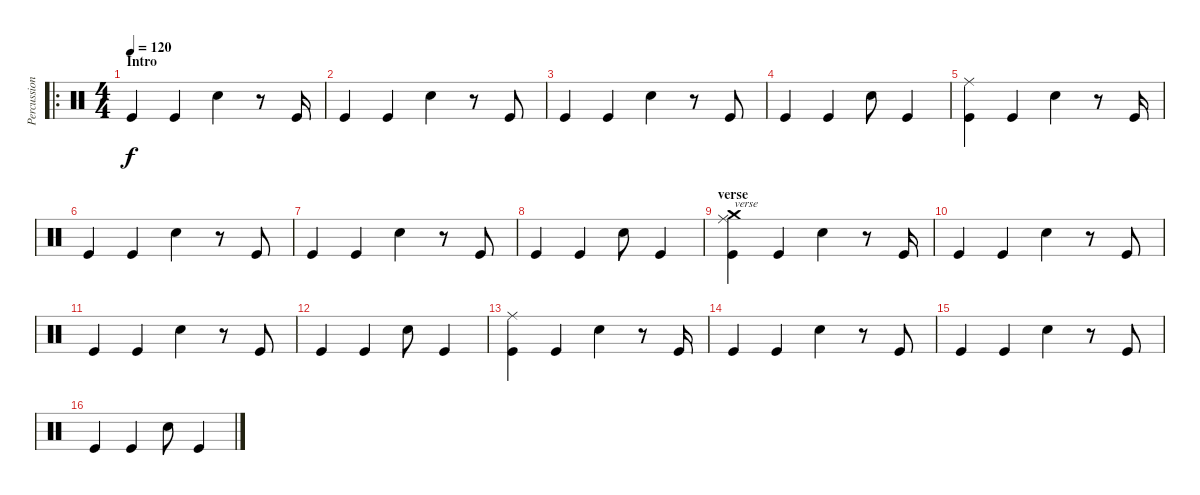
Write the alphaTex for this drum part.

\track ("Percussion" "Percussion") {instrument percussion}
\staff {score}
\articulation defaults
\ro
\ts (4 4)
\section ("" "Intro")
\tempo 120
\clef neutral
\ks c "Kick (hit)".4{dy f} "Kick (hit)".4 "Electric Snare (hit)".4
r.8 "Kick (hit)".16 |
"Kick (hit)".4 "Kick (hit)".4 "Electric Snare (hit)".4 r.8 "Kick (hit)".8 |
"Kick (hit)".4 "Kick (hit)".4 "Electric Snare (hit)".4 r.8 "Kick (hit)".8 |
"Kick (hit)".4 "Kick (hit)".4 "Electric Snare (hit)".8 "Kick (hit)".4 |
("Kick (hit)" "Ride (middle)").4 "Kick (hit)".4 "Electric Snare (hit)".4 r.8 "Kick (hit)".16 |
"Kick (hit)".4 "Kick (hit)".4 "Electric Snare (hit)".4 r.8 "Kick (hit)".8 |
"Kick (hit)".4 "Kick (hit)".4 "Electric Snare (hit)".4 r.8 "Kick (hit)".8 |
"Kick (hit)".4 "Kick (hit)".4 "Electric Snare (hit)".8 "Kick (hit)".4 |
\section ("" "verse")
("Kick (hit)" "Ride (middle)" "Crash medium (hit)").4{txt "verse"} "Kick (hit)".4 "Electric Snare (hit)".4 r.8 "Kick (hit)".16 |
"Kick (hit)".4 "Kick (hit)".4 "Electric Snare (hit)".4 r.8 "Kick (hit)".8 |
"Kick (hit)".4 "Kick (hit)".4 "Electric Snare (hit)".4 r.8 "Kick (hit)".8 |
"Kick (hit)".4 "Kick (hit)".4 "Electric Snare (hit)".8 "Kick (hit)".4 |
("Kick (hit)" "Ride (middle)").4 "Kick (hit)".4 "Electric Snare (hit)".4 r.8 "Kick (hit)".16 |
"Kick (hit)".4 "Kick (hit)".4 "Electric Snare (hit)".4 r.8 "Kick (hit)".8 |
"Kick (hit)".4 "Kick (hit)".4 "Electric Snare (hit)".4 r.8 "Kick (hit)".8 |
"Kick (hit)".4 "Kick (hit)".4 "Electric Snare (hit)".8 "Kick (hit)".4
